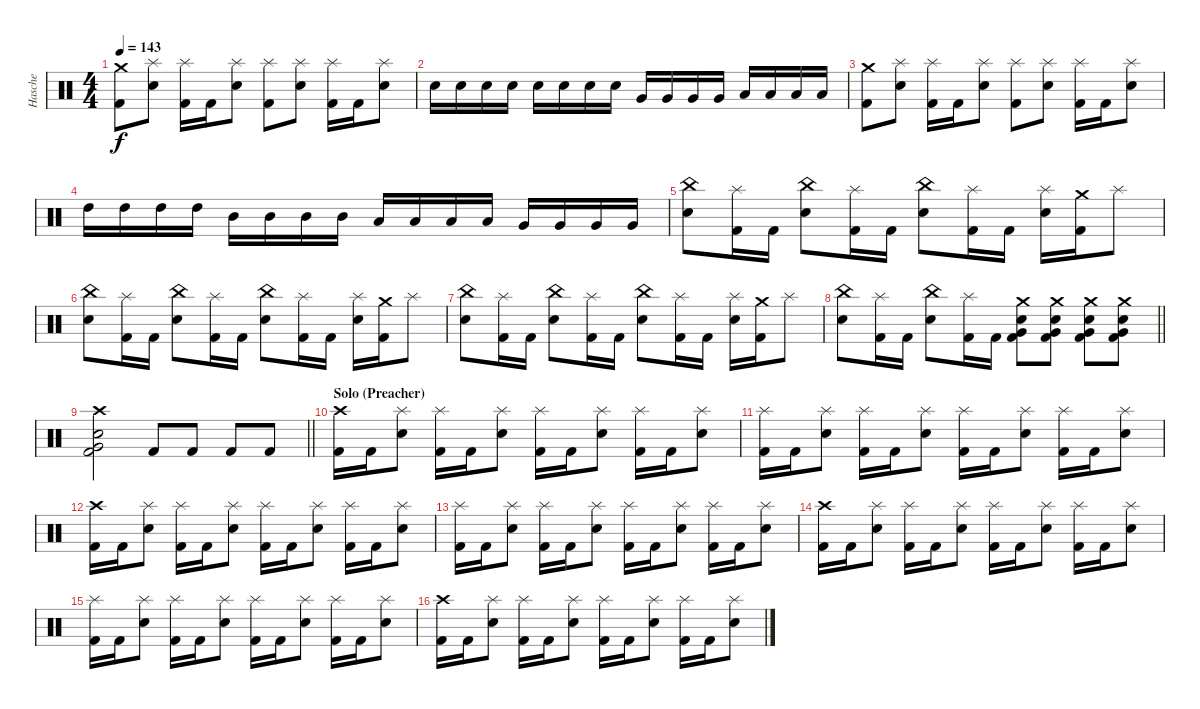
\track ("Hasche" "Hasche") {instrument percussion}
\staff {score}
\articulation defaults
\ts (4 4)
\tempo 143
\clef neutral
\ks c
("Crash medium (hit)" "Kick (hit) 2").8{dy f} ("Splash (hit)" "Snare (hit) 2").8 ("Splash (hit)" "Kick (hit) 2").16 "Kick (hit) 2".16 ("Splash (hit)" "Snare (hit) 2").8 ("Splash (hit)" "Kick (hit) 2").8 ("Splash (hit)" "Snare (hit) 2").8 ("Splash (hit)" "Kick (hit) 2").16 "Kick (hit) 2".16 ("Splash (hit)" "Snare (hit) 2").8 |
"Snare (hit) 2".16 "Snare (hit) 2".16 "Snare (hit) 2".16 "Snare (hit) 2".16 "Snare (hit) 2".16 "Snare (hit) 2".16 "Snare (hit) 2".16 "Snare (hit) 2".16 "Very Low Tom (hit)".16 "Very Low Tom (hit)".16 "Very Low Tom (hit)".16 "Very Low Tom (hit)".16 "Low Floor Tom (hit)".16 "Low Floor Tom (hit)".16 "Low Floor Tom (hit)".16 "Low Floor Tom (hit)".16 |
("Crash medium (hit)" "Kick (hit) 2").8 ("Splash (hit)" "Snare (hit) 2").8 ("Splash (hit)" "Kick (hit) 2").16 "Kick (hit) 2".16 ("Splash (hit)" "Snare (hit) 2").8 ("Splash (hit)" "Kick (hit) 2").8 ("Splash (hit)" "Snare (hit) 2").8 ("Splash (hit)" "Kick (hit) 2").16 "Kick (hit) 2".16 ("Splash (hit)" "Snare (hit) 2").8 |
"High Tom (hit)".16 "High Tom (hit)".16 "High Tom (hit)".16 "High Tom (hit)".16 "Mid Tom (hit)".16 "Mid Tom (hit)".16 "Mid Tom (hit)".16 "Mid Tom (hit)".16 "Low Tom (hit)".16 "Low Tom (hit)".16 "Low Tom (hit)".16 "Low Tom (hit)".16 "Very Low Tom (hit)".16 "Very Low Tom (hit)".16 "Very Low Tom (hit)".16 "Very Low Tom (hit)".16 |
("China (hit)" "Snare (hit) 2").8 ("Splash (hit)" "Kick (hit) 2").16 "Kick (hit) 2".16 ("China (hit)" "Snare (hit) 2").8 ("Splash (hit)" "Kick (hit) 2").16 "Kick (hit) 2".16 ("China (hit)" "Snare (hit) 2").8 ("Splash (hit)" "Kick (hit) 2").16 "Kick (hit) 2".16 ("Splash (hit)" "Snare (hit) 2").16 ("Crash medium (hit)" "Kick (hit) 2").16 "Splash (hit)".8 |
("China (hit)" "Snare (hit) 2").8 ("Splash (hit)" "Kick (hit) 2").16 "Kick (hit) 2".16 ("China (hit)" "Snare (hit) 2").8 ("Splash (hit)" "Kick (hit) 2").16 "Kick (hit) 2".16 ("China (hit)" "Snare (hit) 2").8 ("Splash (hit)" "Kick (hit) 2").16 "Kick (hit) 2".16 ("Splash (hit)" "Snare (hit) 2").16 ("Crash medium (hit)" "Kick (hit) 2").16 "Splash (hit)".8 |
("China (hit)" "Snare (hit) 2").8 ("Splash (hit)" "Kick (hit) 2").16 "Kick (hit) 2".16 ("China (hit)" "Snare (hit) 2").8 ("Splash (hit)" "Kick (hit) 2").16 "Kick (hit) 2".16 ("China (hit)" "Snare (hit) 2").8 ("Splash (hit)" "Kick (hit) 2").16 "Kick (hit) 2".16 ("Splash (hit)" "Snare (hit) 2").16 ("Crash medium (hit)" "Kick (hit) 2").16 "Splash (hit)".8 |
\barLineRight lightlight
("China (hit)" "Snare (hit) 2").8 ("Splash (hit)" "Kick (hit) 2").16 "Kick (hit) 2".16 ("China (hit)" "Snare (hit) 2").8 ("Splash (hit)" "Kick (hit) 2").16 "Kick (hit) 2".16 ("Crash medium (hit)" "Very Low Tom (hit)" "Snare (hit) 2" "Kick (hit) 2").8 ("Crash medium (hit)" "Very Low Tom (hit)" "Snare (hit) 2" "Kick (hit) 2").8 ("Crash medium (hit)" "Very Low Tom (hit)" "Snare (hit) 2" "Kick (hit) 2").8 ("Crash medium (hit)" "Very Low Tom (hit)" "Snare (hit) 2" "Kick (hit) 2").8 |
\barLineRight lightlight
("Crash high (hit)" "Very Low Tom (hit)" "Snare (hit) 2" "Kick (hit) 2").2 "Kick (hit) 2".8 "Kick (hit) 2".8 "Kick (hit) 2".8 "Kick (hit) 2".8 |
\section ("" "Solo (Preacher)")
("Crash high (hit)" "Kick (hit) 2").16 "Kick (hit) 2".16 ("Splash (hit)" "Snare (hit) 2").8 ("Splash (hit)" "Kick (hit) 2").16 "Kick (hit) 2".16 ("Splash (hit)" "Snare (hit) 2").8 ("Splash (hit)" "Kick (hit) 2").16 "Kick (hit) 2".16 ("Splash (hit)" "Snare (hit) 2").8 ("Splash (hit)" "Kick (hit) 2").16 "Kick (hit) 2".16 ("Splash (hit)" "Snare (hit) 2").8 |
("Splash (hit)" "Kick (hit) 2").16 "Kick (hit) 2".16 ("Splash (hit)" "Snare (hit) 2").8 ("Splash (hit)" "Kick (hit) 2").16 "Kick (hit) 2".16 ("Splash (hit)" "Snare (hit) 2").8 ("Splash (hit)" "Kick (hit) 2").16 "Kick (hit) 2".16 ("Splash (hit)" "Snare (hit) 2").8 ("Splash (hit)" "Kick (hit) 2").16 "Kick (hit) 2".16 ("Splash (hit)" "Snare (hit) 2").8 |
("Crash high (hit)" "Kick (hit) 2").16 "Kick (hit) 2".16 ("Splash (hit)" "Snare (hit) 2").8 ("Splash (hit)" "Kick (hit) 2").16 "Kick (hit) 2".16 ("Splash (hit)" "Snare (hit) 2").8 ("Splash (hit)" "Kick (hit) 2").16 "Kick (hit) 2".16 ("Splash (hit)" "Snare (hit) 2").8 ("Splash (hit)" "Kick (hit) 2").16 "Kick (hit) 2".16 ("Splash (hit)" "Snare (hit) 2").8 |
("Splash (hit)" "Kick (hit) 2").16 "Kick (hit) 2".16 ("Splash (hit)" "Snare (hit) 2").8 ("Splash (hit)" "Kick (hit) 2").16 "Kick (hit) 2".16 ("Splash (hit)" "Snare (hit) 2").8 ("Splash (hit)" "Kick (hit) 2").16 "Kick (hit) 2".16 ("Splash (hit)" "Snare (hit) 2").8 ("Splash (hit)" "Kick (hit) 2").16 "Kick (hit) 2".16 ("Splash (hit)" "Snare (hit) 2").8 |
("Crash high (hit)" "Kick (hit) 2").16 "Kick (hit) 2".16 ("Splash (hit)" "Snare (hit) 2").8 ("Splash (hit)" "Kick (hit) 2").16 "Kick (hit) 2".16 ("Splash (hit)" "Snare (hit) 2").8 ("Splash (hit)" "Kick (hit) 2").16 "Kick (hit) 2".16 ("Splash (hit)" "Snare (hit) 2").8 ("Splash (hit)" "Kick (hit) 2").16 "Kick (hit) 2".16 ("Splash (hit)" "Snare (hit) 2").8 |
("Splash (hit)" "Kick (hit) 2").16 "Kick (hit) 2".16 ("Splash (hit)" "Snare (hit) 2").8 ("Splash (hit)" "Kick (hit) 2").16 "Kick (hit) 2".16 ("Splash (hit)" "Snare (hit) 2").8 ("Splash (hit)" "Kick (hit) 2").16 "Kick (hit) 2".16 ("Splash (hit)" "Snare (hit) 2").8 ("Splash (hit)" "Kick (hit) 2").16 "Kick (hit) 2".16 ("Splash (hit)" "Snare (hit) 2").8 |
("Crash high (hit)" "Kick (hit) 2").16 "Kick (hit) 2".16 ("Splash (hit)" "Snare (hit) 2").8 ("Splash (hit)" "Kick (hit) 2").16 "Kick (hit) 2".16 ("Splash (hit)" "Snare (hit) 2").8 ("Splash (hit)" "Kick (hit) 2").16 "Kick (hit) 2".16 ("Splash (hit)" "Snare (hit) 2").8 ("Splash (hit)" "Kick (hit) 2").16 "Kick (hit) 2".16 ("Splash (hit)" "Snare (hit) 2").8
